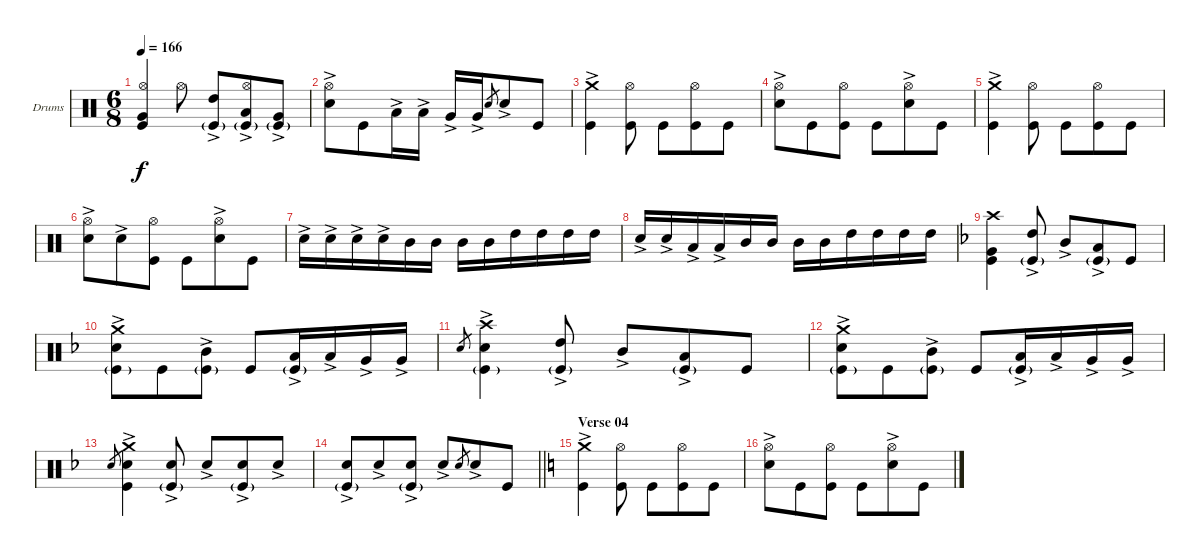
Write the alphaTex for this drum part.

\bracketExtendMode groupsimilarinstruments
\firstSystemTrackNameOrientation horizontal
\otherSystemsTrackNameOrientation horizontal
\track ("Drumkit" "Drums") {instrument percussion}
\staff {score}
\articulation defaults
\ts (6 8)
\tempo 166
\clef neutral
\ks c
("Kick (hit)" "Hi-Hat (open)" "Very Low Tom (hit)").4{dy f} "Hi-Hat (open)".8 ("High Tom (hit)"{ac} "Kick (hit)"{g}).8 ("Hi-Hat (open)" "Low Tom (hit)"{ac} "Kick (hit)"{g}).8 ("Very Low Tom (hit)"{ac} "Kick (hit)"{g}).8 |
("Snare (hit) 2"{ac} "Hi-Hat (open)").8 "Kick (hit)".8 "Low Tom (hit)"{ac}.16 "Low Tom (hit)"{ac}.16 "Very Low Tom (hit)"{ac}.16 "Very Low Tom (hit)"{ac}.16 "Snare (hit) 2".8{gr} "Snare (hit) 2"{ac}.8 "Kick (hit)".8 |
("Crash medium (hit)"{ac} "Kick (hit)").4 ("Kick (hit)" "Hi-Hat (open)").8 "Kick (hit)".8 ("Kick (hit)" "Hi-Hat (open)").8 "Kick (hit)".8 |
("Snare (hit) 2"{ac} "Hi-Hat (open)").8 "Kick (hit)".8 ("Kick (hit)" "Hi-Hat (open)").8 "Kick (hit)".8 ("Snare (hit) 2"{ac} "Hi-Hat (open)").8 "Kick (hit)".8 |
("Crash medium (hit)"{ac} "Kick (hit)").4 ("Kick (hit)" "Hi-Hat (open)").8 "Kick (hit)".8 ("Kick (hit)" "Hi-Hat (open)").8 "Kick (hit)".8 |
("Snare (hit) 2"{ac} "Hi-Hat (open)").8 "Snare (hit) 2"{ac}.8 ("Kick (hit)" "Hi-Hat (open)").8 "Kick (hit)".8 ("Snare (hit) 2"{ac} "Hi-Hat (open)").8 "Kick (hit)".8 |
"Snare (hit) 2"{ac}.16 "Snare (hit) 2"{ac}.16 "Snare (hit) 2"{ac}.16 "Snare (hit) 2"{ac}.16 "Mid Tom (hit)".16 "Mid Tom (hit)".16 "Mid Tom (hit)".16 "Mid Tom (hit)".16 "High Tom (hit)".16 "High Tom (hit)".16 "High Tom (hit)".16 "High Tom (hit)".16 |
"Snare (hit) 2"{ac}.16{beam invert} "Snare (hit) 2"{ac}.16 "Low Tom (hit)"{ac}.16 "Low Tom (hit)"{ac}.16 "Mid Tom (hit)".16 "Mid Tom (hit)".16 "Mid Tom (hit)".16 "Mid Tom (hit)".16 "High Tom (hit)".16 "High Tom (hit)".16 "High Tom (hit)".16 "High Tom (hit)".16 |
\ks dminor
("Crash high (hit)" "Very Low Tom (hit)" "Kick (hit)").4 ("High Tom (hit)"{ac} "Kick (hit)"{g}).8 "Mid Tom (hit)"{ac}.8 ("Low Tom (hit)"{ac} "Kick (hit)"{g}).8 "Kick (hit)".8 |
("Crash medium (hit)" "Snare (hit) 2"{ac} "Kick (hit)"{g}).8 "Kick (hit)".8 ("Mid Tom (hit)"{ac} "Kick (hit)"{g}).8 "Kick (hit)".8 ("Low Tom (hit)"{ac} "Kick (hit)"{g}).16 "Low Tom (hit)"{ac}.16 "Very Low Tom (hit)"{ac}.16 "Very Low Tom (hit)"{ac}.16 |
"Snare (hit) 2".8{gr} ("Crash high (hit)" "Snare (hit) 2"{ac} "Kick (hit)"{g}).4 ("High Tom (hit)"{ac} "Kick (hit)"{g}).8 "Mid Tom (hit)"{ac}.8 ("Low Tom (hit)"{ac} "Kick (hit)"{g}).8 "Kick (hit)".8 |
("Crash medium (hit)"{ac} "Snare (hit) 2"{ac} "Kick (hit)"{g}).8 "Kick (hit)".8 ("Mid Tom (hit)"{ac} "Kick (hit)"{g}).8 "Kick (hit)".8 ("Low Tom (hit)"{ac} "Kick (hit)"{g}).16 "Low Tom (hit)"{ac}.16 "Very Low Tom (hit)"{ac}.16 "Very Low Tom (hit)"{ac}.16 |
"Snare (hit) 2".8{gr} ("Crash medium (hit)"{ac} "Snare (hit) 2"{ac} "Kick (hit)").4 ("Snare (hit) 2"{ac} "Kick (hit)"{g}).8 "Snare (hit) 2"{ac}.8 ("Snare (hit) 2"{ac} "Kick (hit)"{g}).8 "Snare (hit) 2"{ac}.8 |
\barLineRight lightlight
("Snare (hit) 2"{ac} "Kick (hit)"{g}).8 "Snare (hit) 2"{ac}.8 ("Snare (hit) 2"{ac} "Kick (hit)"{g}).8 "Snare (hit) 2"{ac}.8 "Snare (hit) 2".8{gr} "Snare (hit) 2"{ac}.8 "Kick (hit)".8 |
\section ("" "Verse 04")
\ks c
("Crash medium (hit)"{ac} "Kick (hit)").4 ("Kick (hit)" "Hi-Hat (open)").8 "Kick (hit)".8 ("Kick (hit)" "Hi-Hat (open)").8 "Kick (hit)".8 |
("Snare (hit) 2"{ac} "Hi-Hat (open)").8 "Kick (hit)".8 ("Kick (hit)" "Hi-Hat (open)").8 "Kick (hit)".8 ("Snare (hit) 2"{ac} "Hi-Hat (open)").8 "Kick (hit)".8
